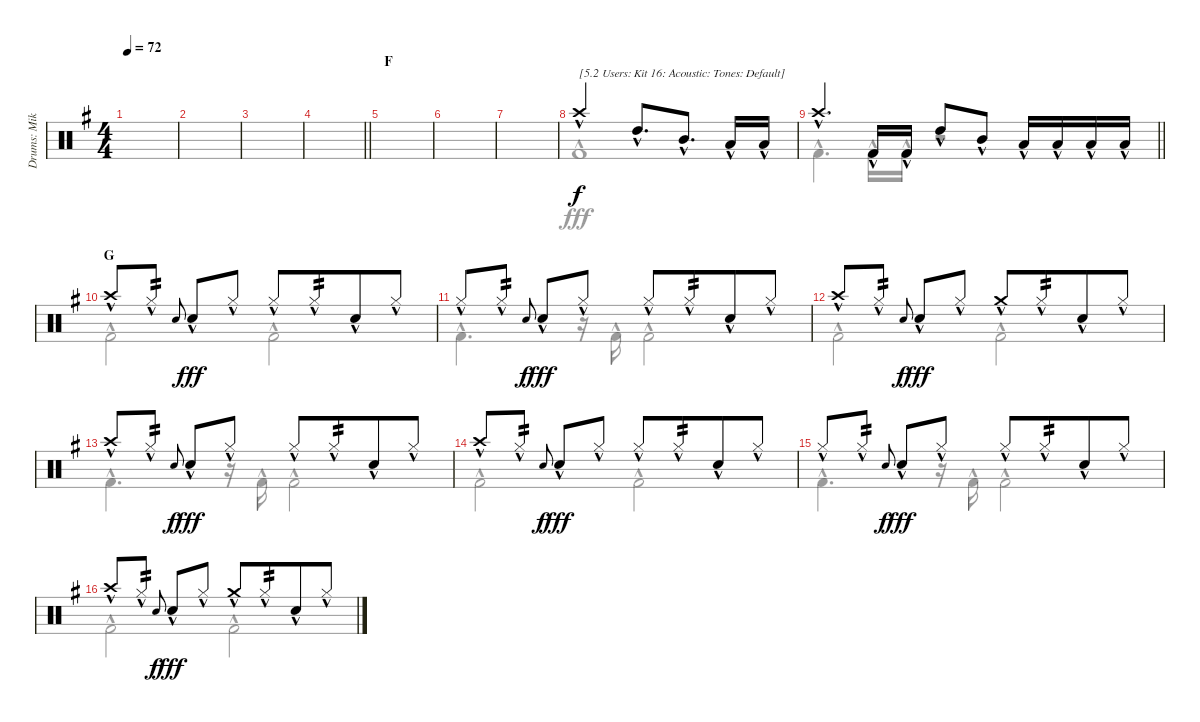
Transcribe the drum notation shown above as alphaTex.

\track ("Drums: Mike" "Drums: Mik") {instrument percussion}
\staff {score}
\articulation defaults
\voice
\ts (4 4)
\tempo 72
\clef neutral
\ks g
|
|
|
\barLineRight lightlight
|
\section ("" "F")
|
|
|
"Crash high (hit)"{hac}.2{txt "[5.2 Users: Kit 16: Acoustic: Tones: Default]"} "High Tom (hit)"{hac}.8{d} "Mid Tom (hit)"{hac}.8{d} "Low Tom (hit)"{hac}.16 "Low Tom (hit)"{hac}.16 |
\barLineRight lightlight "Crash high (hit)"{hac}.4{d} "Kick (hit) 2"{hac}.16 "Kick (hit) 2"{hac}.16 "High Tom (hit)"{hac}.8 "Mid Tom (hit)"{hac}.8 "Low Tom (hit)"{hac}.16 "Low Tom (hit)"{hac}.16 "Low Tom (hit)"{hac}.16 "Low Tom (hit)"{hac}.16
|
\section ("" "G")
"Crash high (hit)"{hac}.8 "Hi-Hat (closed)"{hac}.8{tp 2} "Electric Snare (hit)".8{gr onbeat dy f beam merge} "Snare (hit) 2"{hac}.8{dy fff} "Hi-Hat (closed)"{hac}.8 "Hi-Hat (closed)"{hac}.8 "Hi-Hat (closed)"{hac}.8{tp 2 beam merge} "Snare (hit) 2"{hac}.8 "Hi-Hat (closed)"{hac}.8 |
"Hi-Hat (closed)"{hac}.8 "Hi-Hat (closed)"{hac}.8{tp 2} "Electric Snare (hit)".8{gr onbeat dy f beam merge} "Snare (hit) 2"{hac}.8{dy fff} "Hi-Hat (closed)"{hac}.8 "Hi-Hat (closed)"{hac}.8 "Hi-Hat (closed)"{hac}.8{tp 2 beam merge} "Snare (hit) 2"{hac}.8 "Hi-Hat (closed)"{hac}.8 |
"Crash high (hit)"{hac}.8 "Hi-Hat (closed)"{hac}.8{tp 2} "Electric Snare (hit)".8{gr onbeat dy f beam merge} "Snare (hit) 2"{hac}.8{dy fff} "Hi-Hat (closed)"{hac}.8 "Crash medium (hit)"{hac}.8 "Hi-Hat (closed)"{hac}.8{tp 2 beam merge} "Snare (hit) 2"{hac}.8 "Hi-Hat (closed)"{hac}.8 |
"Crash high (hit)"{hac}.8 "Hi-Hat (closed)"{hac}.8{tp 2} "Electric Snare (hit)".8{gr onbeat dy f beam merge} "Snare (hit) 2"{hac}.8{dy fff} "Hi-Hat (closed)"{hac}.8 "Hi-Hat (closed)"{hac}.8 "Hi-Hat (closed)"{hac}.8{tp 2 beam merge} "Snare (hit) 2"{hac}.8 "Hi-Hat (closed)"{hac}.8 |
"Crash high (hit)"{hac}.8 "Hi-Hat (closed)"{hac}.8{tp 2} "Electric Snare (hit)".8{gr onbeat dy f beam merge} "Snare (hit) 2"{hac}.8{dy fff} "Hi-Hat (closed)"{hac}.8 "Hi-Hat (closed)"{hac}.8 "Hi-Hat (closed)"{hac}.8{tp 2 beam merge} "Snare (hit) 2"{hac}.8 "Hi-Hat (closed)"{hac}.8 |
"Hi-Hat (closed)"{hac}.8 "Hi-Hat (closed)"{hac}.8{tp 2} "Electric Snare (hit)".8{gr onbeat dy f beam merge} "Snare (hit) 2"{hac}.8{dy fff} "Hi-Hat (closed)"{hac}.8 "Hi-Hat (closed)"{hac}.8 "Hi-Hat (closed)"{hac}.8{tp 2 beam merge} "Snare (hit) 2"{hac}.8 "Hi-Hat (closed)"{hac}.8 |
"Crash high (hit)"{hac}.8 "Hi-Hat (closed)"{hac}.8{tp 2} "Electric Snare (hit)".8{gr onbeat dy f beam merge} "Snare (hit) 2"{hac}.8{dy fff} "Hi-Hat (closed)"{hac}.8 "Crash medium (hit)"{hac}.8 "Hi-Hat (closed)"{hac}.8{tp 2 beam merge} "Snare (hit) 2"{hac}.8 "Hi-Hat (closed)"{hac}.8
\voice
\clef neutral
\ottava regular
\simile none
\ks g
|
|
|
\barLineRight lightlight
|
|
|
|
"Kick (hit) 2"{hac}.1 |
\barLineRight lightlight "Kick (hit) 2"{hac}.4{d} "Kick (hit) 2"{hac}.16 "Kick (hit) 2"{hac}.16
r.2 |
"Kick (hit) 2"{hac}.2 "Kick (hit) 2"{hac}.2 |
"Kick (hit) 2"{hac}.4{d} r.16 "Kick (hit) 2"{hac}.16 "Kick (hit) 2"{hac}.2 |
"Kick (hit) 2"{hac}.2 "Kick (hit) 2"{hac}.2 |
"Kick (hit) 2"{hac}.4{d} r.16 "Kick (hit) 2"{hac}.16 "Kick (hit) 2"{hac}.2 |
"Kick (hit) 2"{hac}.2 "Kick (hit) 2"{hac}.2 |
"Kick (hit) 2"{hac}.4{d} r.16 "Kick (hit) 2"{hac}.16 "Kick (hit) 2"{hac}.2 |
"Kick (hit) 2"{hac}.2 "Kick (hit) 2"{hac}.2
